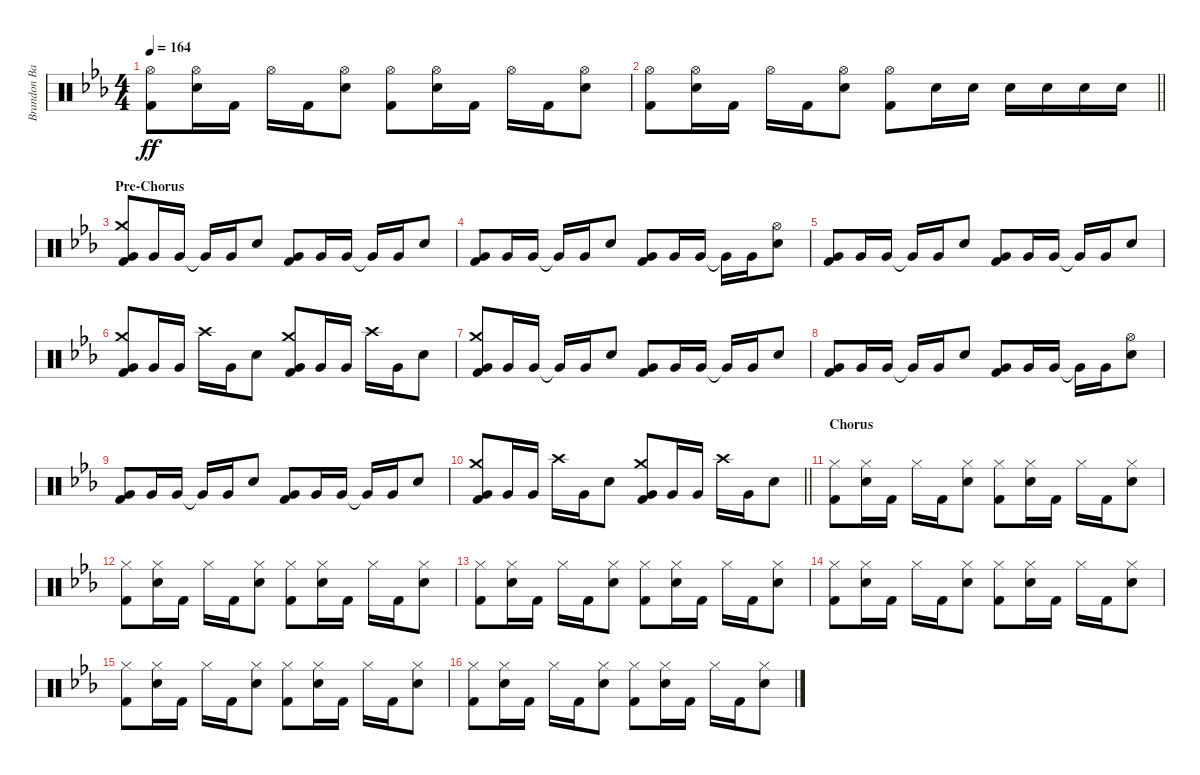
\track ("Brandon Barnes - Drums" "Brandon Ba") {instrument percussion}
\staff {score}
\articulation defaults
\ts (4 4)
\tempo 164
\clef neutral
\ks eb
("Kick (hit) 2" "Hi-Hat (open)").8{dy ff} ("Electric Snare (hit)" "Hi-Hat (open)").16 "Kick (hit) 2".16 "Hi-Hat (open)".16 "Kick (hit) 2".16 ("Electric Snare (hit)" "Hi-Hat (open)").8 ("Kick (hit) 2" "Hi-Hat (open)").8 ("Electric Snare (hit)" "Hi-Hat (open)").16 "Kick (hit) 2".16 "Hi-Hat (open)".16 "Kick (hit) 2".16 ("Electric Snare (hit)" "Hi-Hat (open)").8 |
\barLineRight lightlight
("Kick (hit) 2" "Hi-Hat (open)").8 ("Electric Snare (hit)" "Hi-Hat (open)").16 "Kick (hit) 2".16 "Hi-Hat (open)".16 "Kick (hit) 2".16 ("Electric Snare (hit)" "Hi-Hat (open)").8 ("Kick (hit) 2" "Hi-Hat (open)").8 "Electric Snare (hit)".16 "Snare (hit) 2".16 "Snare (hit) 2".16 "Snare (hit) 2".16 "Electric Snare (hit)".16 "Snare (hit) 2".16 |
\section ("" "Pre-Chorus")
("Crash medium (hit)" "Kick (hit) 2" "Very Low Tom (hit)").8 "Very Low Tom (hit)".16 "Very Low Tom (hit)".16 "Very Low Tom (hit)"{t}.16 "Very Low Tom (hit)".16 "Electric Snare (hit)".8 ("Kick (hit) 2" "Very Low Tom (hit)").8 "Very Low Tom (hit)".16 "Very Low Tom (hit)".16 "Very Low Tom (hit)"{t}.16 "Very Low Tom (hit)".16 "Electric Snare (hit)".8 |
("Kick (hit) 2" "Very Low Tom (hit)").8 "Very Low Tom (hit)".16 "Very Low Tom (hit)".16 "Very Low Tom (hit)"{t}.16 "Very Low Tom (hit)".16 "Electric Snare (hit)".8 ("Kick (hit) 2" "Very Low Tom (hit)").8 "Very Low Tom (hit)".16 "Very Low Tom (hit)".16 "Very Low Tom (hit)"{t}.16 "Very Low Tom (hit)".16 ("Electric Snare (hit)" "Hi-Hat (open)").8 |
("Kick (hit) 2" "Very Low Tom (hit)").8 "Very Low Tom (hit)".16 "Very Low Tom (hit)".16 "Very Low Tom (hit)"{t}.16 "Very Low Tom (hit)".16 "Electric Snare (hit)".8 ("Kick (hit) 2" "Very Low Tom (hit)").8 "Very Low Tom (hit)".16 "Very Low Tom (hit)".16 "Very Low Tom (hit)"{t}.16 "Very Low Tom (hit)".16 "Electric Snare (hit)".8 |
("Crash medium (hit)" "Kick (hit) 2" "Very Low Tom (hit)").8 "Very Low Tom (hit)".16 "Very Low Tom (hit)".16 "Crash high (hit)".16 "Very Low Tom (hit)".16 "Electric Snare (hit)".8 ("Crash medium (hit)" "Kick (hit) 2" "Very Low Tom (hit)").8 "Very Low Tom (hit)".16 "Very Low Tom (hit)".16 "Crash high (hit)".16 "Very Low Tom (hit)".16 "Electric Snare (hit)".8 |
("Crash medium (hit)" "Kick (hit) 2" "Very Low Tom (hit)").8 "Very Low Tom (hit)".16 "Very Low Tom (hit)".16 "Very Low Tom (hit)"{t}.16 "Very Low Tom (hit)".16 "Electric Snare (hit)".8 ("Kick (hit) 2" "Very Low Tom (hit)").8 "Very Low Tom (hit)".16 "Very Low Tom (hit)".16 "Very Low Tom (hit)"{t}.16 "Very Low Tom (hit)".16 "Electric Snare (hit)".8 |
("Kick (hit) 2" "Very Low Tom (hit)").8 "Very Low Tom (hit)".16 "Very Low Tom (hit)".16 "Very Low Tom (hit)"{t}.16 "Very Low Tom (hit)".16 "Electric Snare (hit)".8 ("Kick (hit) 2" "Very Low Tom (hit)").8 "Very Low Tom (hit)".16 "Very Low Tom (hit)".16 "Very Low Tom (hit)"{t}.16 "Very Low Tom (hit)".16 ("Electric Snare (hit)" "Hi-Hat (open)").8 |
("Kick (hit) 2" "Very Low Tom (hit)").8 "Very Low Tom (hit)".16 "Very Low Tom (hit)".16 "Very Low Tom (hit)"{t}.16 "Very Low Tom (hit)".16 "Electric Snare (hit)".8 ("Kick (hit) 2" "Very Low Tom (hit)").8 "Very Low Tom (hit)".16 "Very Low Tom (hit)".16 "Very Low Tom (hit)"{t}.16 "Very Low Tom (hit)".16 "Electric Snare (hit)".8 |
\barLineRight lightlight
("Crash medium (hit)" "Kick (hit) 2" "Very Low Tom (hit)").8 "Very Low Tom (hit)".16 "Very Low Tom (hit)".16 "Crash high (hit)".16 "Very Low Tom (hit)".16 "Electric Snare (hit)".8 ("Crash medium (hit)" "Kick (hit) 2" "Very Low Tom (hit)").8 "Very Low Tom (hit)".16 "Very Low Tom (hit)".16 "Crash high (hit)".16 "Very Low Tom (hit)".16 "Electric Snare (hit)".8 |
\section ("" "Chorus")
("Kick (hit) 2" "Hi-Hat (closed)").8 ("Electric Snare (hit)" "Hi-Hat (closed)").16 "Kick (hit) 2".16 "Hi-Hat (closed)".16 "Kick (hit) 2".16 ("Electric Snare (hit)" "Hi-Hat (closed)").8 ("Kick (hit) 2" "Hi-Hat (closed)").8 ("Electric Snare (hit)" "Hi-Hat (closed)").16 "Kick (hit) 2".16 "Hi-Hat (closed)".16 "Kick (hit) 2".16 ("Electric Snare (hit)" "Hi-Hat (closed)").8 |
("Kick (hit) 2" "Hi-Hat (closed)").8 ("Electric Snare (hit)" "Hi-Hat (closed)").16 "Kick (hit) 2".16 "Hi-Hat (closed)".16 "Kick (hit) 2".16 ("Electric Snare (hit)" "Hi-Hat (closed)").8 ("Kick (hit) 2" "Hi-Hat (closed)").8 ("Electric Snare (hit)" "Hi-Hat (closed)").16 "Kick (hit) 2".16 "Hi-Hat (closed)".16 "Kick (hit) 2".16 ("Electric Snare (hit)" "Hi-Hat (closed)").8 |
("Kick (hit) 2" "Hi-Hat (closed)").8 ("Electric Snare (hit)" "Hi-Hat (closed)").16 "Kick (hit) 2".16 "Hi-Hat (closed)".16 "Kick (hit) 2".16 ("Electric Snare (hit)" "Hi-Hat (closed)").8 ("Kick (hit) 2" "Hi-Hat (closed)").8 ("Electric Snare (hit)" "Hi-Hat (closed)").16 "Kick (hit) 2".16 "Hi-Hat (closed)".16 "Kick (hit) 2".16 ("Electric Snare (hit)" "Hi-Hat (closed)").8 |
("Kick (hit) 2" "Hi-Hat (closed)").8 ("Electric Snare (hit)" "Hi-Hat (closed)").16 "Kick (hit) 2".16 "Hi-Hat (closed)".16 "Kick (hit) 2".16 ("Electric Snare (hit)" "Hi-Hat (closed)").8 ("Kick (hit) 2" "Hi-Hat (closed)").8 ("Electric Snare (hit)" "Hi-Hat (closed)").16 "Kick (hit) 2".16 "Hi-Hat (closed)".16 "Kick (hit) 2".16 ("Electric Snare (hit)" "Hi-Hat (closed)").8 |
("Kick (hit) 2" "Hi-Hat (closed)").8 ("Electric Snare (hit)" "Hi-Hat (closed)").16 "Kick (hit) 2".16 "Hi-Hat (closed)".16 "Kick (hit) 2".16 ("Electric Snare (hit)" "Hi-Hat (closed)").8 ("Kick (hit) 2" "Hi-Hat (closed)").8 ("Electric Snare (hit)" "Hi-Hat (closed)").16 "Kick (hit) 2".16 "Hi-Hat (closed)".16 "Kick (hit) 2".16 ("Electric Snare (hit)" "Hi-Hat (closed)").8 |
("Kick (hit) 2" "Hi-Hat (closed)").8 ("Electric Snare (hit)" "Hi-Hat (closed)").16 "Kick (hit) 2".16 "Hi-Hat (closed)".16 "Kick (hit) 2".16 ("Electric Snare (hit)" "Hi-Hat (closed)").8 ("Kick (hit) 2" "Hi-Hat (closed)").8 ("Electric Snare (hit)" "Hi-Hat (closed)").16 "Kick (hit) 2".16 "Hi-Hat (closed)".16 "Kick (hit) 2".16 ("Electric Snare (hit)" "Hi-Hat (closed)").8
